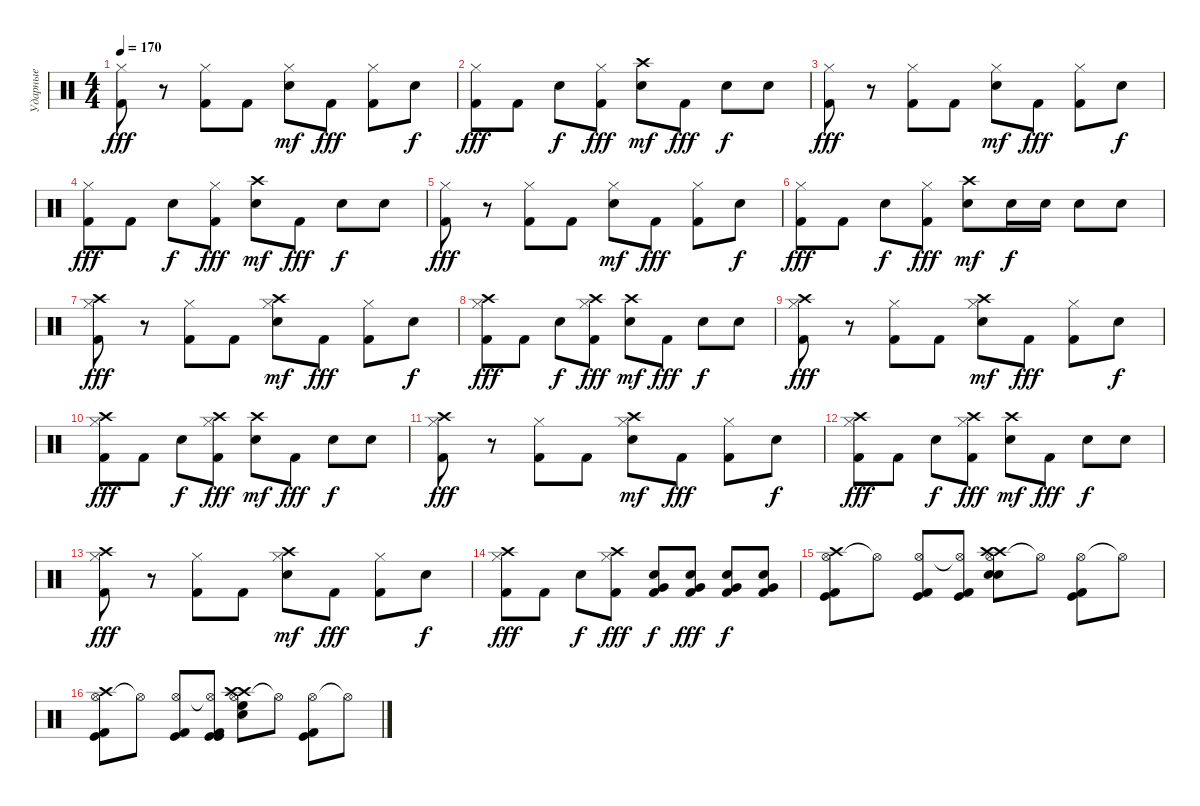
\track ("Ударные" "Ударные") {instrument percussion}
\staff {score}
\articulation defaults
\ts (4 4)
\tempo 170
\clef neutral
\ks c
("Hi-Hat (closed)" "Kick (hit) 2").8{dy fff} r.8 ("Hi-Hat (closed)" "Kick (hit) 2").8 "Kick (hit) 2".8 ("Hi-Hat (closed)" "Electric Snare (hit)").8{dy mf} "Kick (hit) 2".8{dy fff} ("Hi-Hat (closed)" "Kick (hit) 2").8 "Electric Snare (hit)".8{dy f} |
("Hi-Hat (closed)" "Kick (hit) 2").8{dy fff} "Kick (hit) 2".8 "Electric Snare (hit)".8{dy f} ("Hi-Hat (closed)" "Kick (hit) 2").8{dy fff} ("Crash high (hit)" "Electric Snare (hit)").8{dy mf} "Kick (hit) 2".8{dy fff} "Electric Snare (hit)".8{dy f} "Electric Snare (hit)".8 |
("Hi-Hat (closed)" "Kick (hit) 2").8{dy fff} r.8 ("Hi-Hat (closed)" "Kick (hit) 2").8 "Kick (hit) 2".8 ("Hi-Hat (closed)" "Electric Snare (hit)").8{dy mf} "Kick (hit) 2".8{dy fff} ("Hi-Hat (closed)" "Kick (hit) 2").8 "Electric Snare (hit)".8{dy f} |
("Hi-Hat (closed)" "Kick (hit) 2").8{dy fff} "Kick (hit) 2".8 "Electric Snare (hit)".8{dy f} ("Hi-Hat (closed)" "Kick (hit) 2").8{dy fff} ("Crash high (hit)" "Electric Snare (hit)").8{dy mf} "Kick (hit) 2".8{dy fff} "Electric Snare (hit)".8{dy f} "Electric Snare (hit)".8 |
("Hi-Hat (closed)" "Kick (hit) 2").8{dy fff} r.8 ("Hi-Hat (closed)" "Kick (hit) 2").8 "Kick (hit) 2".8 ("Hi-Hat (closed)" "Electric Snare (hit)").8{dy mf} "Kick (hit) 2".8{dy fff} ("Hi-Hat (closed)" "Kick (hit) 2").8 "Electric Snare (hit)".8{dy f} |
("Hi-Hat (closed)" "Kick (hit) 2").8{dy fff} "Kick (hit) 2".8 "Electric Snare (hit)".8{dy f} ("Hi-Hat (closed)" "Kick (hit) 2").8{dy fff} ("Crash high (hit)" "Electric Snare (hit)").8{dy mf} "Electric Snare (hit)".16{dy f} "Electric Snare (hit)".16 "Electric Snare (hit)".8 "Electric Snare (hit)".8 |
("Crash high (hit)" "Hi-Hat (closed)" "Kick (hit) 2").8{dy fff} r.8 ("Hi-Hat (closed)" "Kick (hit) 2").8 "Kick (hit) 2".8 ("Crash high (hit)" "Hi-Hat (closed)" "Electric Snare (hit)").8{dy mf} "Kick (hit) 2".8{dy fff} ("Hi-Hat (closed)" "Kick (hit) 2").8 "Electric Snare (hit)".8{dy f} |
("Crash high (hit)" "Hi-Hat (closed)" "Kick (hit) 2").8{dy fff} "Kick (hit) 2".8 "Electric Snare (hit)".8{dy f} ("Crash high (hit)" "Hi-Hat (closed)" "Kick (hit) 2").8{dy fff} ("Crash high (hit)" "Electric Snare (hit)").8{dy mf} "Kick (hit) 2".8{dy fff} "Electric Snare (hit)".8{dy f} "Electric Snare (hit)".8 |
("Crash high (hit)" "Hi-Hat (closed)" "Kick (hit) 2").8{dy fff} r.8 ("Hi-Hat (closed)" "Kick (hit) 2").8 "Kick (hit) 2".8 ("Crash high (hit)" "Hi-Hat (closed)" "Electric Snare (hit)").8{dy mf} "Kick (hit) 2".8{dy fff} ("Hi-Hat (closed)" "Kick (hit) 2").8 "Electric Snare (hit)".8{dy f} |
("Crash high (hit)" "Hi-Hat (closed)" "Kick (hit) 2").8{dy fff} "Kick (hit) 2".8 "Electric Snare (hit)".8{dy f} ("Crash high (hit)" "Hi-Hat (closed)" "Kick (hit) 2").8{dy fff} ("Crash high (hit)" "Electric Snare (hit)").8{dy mf} "Kick (hit) 2".8{dy fff} "Electric Snare (hit)".8{dy f} "Electric Snare (hit)".8 |
("Crash high (hit)" "Hi-Hat (closed)" "Kick (hit) 2").8{dy fff} r.8 ("Hi-Hat (closed)" "Kick (hit) 2").8 "Kick (hit) 2".8 ("Crash high (hit)" "Hi-Hat (closed)" "Electric Snare (hit)").8{dy mf} "Kick (hit) 2".8{dy fff} ("Hi-Hat (closed)" "Kick (hit) 2").8 "Electric Snare (hit)".8{dy f} |
("Crash high (hit)" "Hi-Hat (closed)" "Kick (hit) 2").8{dy fff} "Kick (hit) 2".8 "Electric Snare (hit)".8{dy f} ("Crash high (hit)" "Hi-Hat (closed)" "Kick (hit) 2").8{dy fff} ("Crash high (hit)" "Electric Snare (hit)").8{dy mf} "Kick (hit) 2".8{dy fff} "Electric Snare (hit)".8{dy f} "Electric Snare (hit)".8 |
("Crash high (hit)" "Hi-Hat (closed)" "Kick (hit) 2").8{dy fff} r.8 ("Hi-Hat (closed)" "Kick (hit) 2").8 "Kick (hit) 2".8 ("Crash high (hit)" "Hi-Hat (closed)" "Electric Snare (hit)").8{dy mf} "Kick (hit) 2".8{dy fff} ("Hi-Hat (closed)" "Kick (hit) 2").8 "Electric Snare (hit)".8{dy f} |
("Crash high (hit)" "Hi-Hat (closed)" "Kick (hit) 2").8{dy fff} "Kick (hit) 2".8 "Electric Snare (hit)".8{dy f} ("Crash high (hit)" "Hi-Hat (closed)" "Kick (hit) 2").8{dy fff} ("Very Low Tom (hit)" "Electric Snare (hit)" "Kick (hit) 2").8{dy f} ("Very Low Tom (hit)" "Electric Snare (hit)" "Kick (hit) 2").8{dy fff} ("Very Low Tom (hit)" "Electric Snare (hit)" "Kick (hit) 2").8{dy f} ("Very Low Tom (hit)" "Electric Snare (hit)" "Kick (hit) 2").8 |
("Hi-Hat (open)" "Kick (hit)" "Kick (hit) 2" "Crash high (hit)").8 "Hi-Hat (open)"{t}.8 ("Hi-Hat (open)" "Kick (hit)" "Kick (hit) 2").8 ("Hi-Hat (open)"{t} "Kick (hit)" "Kick (hit) 2").8 ("Hi-Hat (open)" "Electric Snare (hit)" "Electric Snare (hit)" "Crash high (hit)" "Crash high (hit)").8 "Hi-Hat (open)"{t}.8 ("Hi-Hat (open)" "Kick (hit)" "Kick (hit) 2").8 "Hi-Hat (open)"{t}.8 |
("Hi-Hat (open)" "Kick (hit)" "Kick (hit) 2" "Crash high (hit)").8 "Hi-Hat (open)"{t}.8 ("Hi-Hat (open)" "Kick (hit)" "Kick (hit) 2").8 ("Hi-Hat (open)"{t} "Kick (hit)" "Kick (hit)" "Kick (hit) 2").8 ("Hi-Hat (open)" "Electric Snare (hit)" "High Floor Tom (hit)" "Crash high (hit)" "Crash high (hit)").8 "Hi-Hat (open)"{t}.8 ("Hi-Hat (open)" "Kick (hit)" "Kick (hit) 2").8 "Hi-Hat (open)"{t}.8
